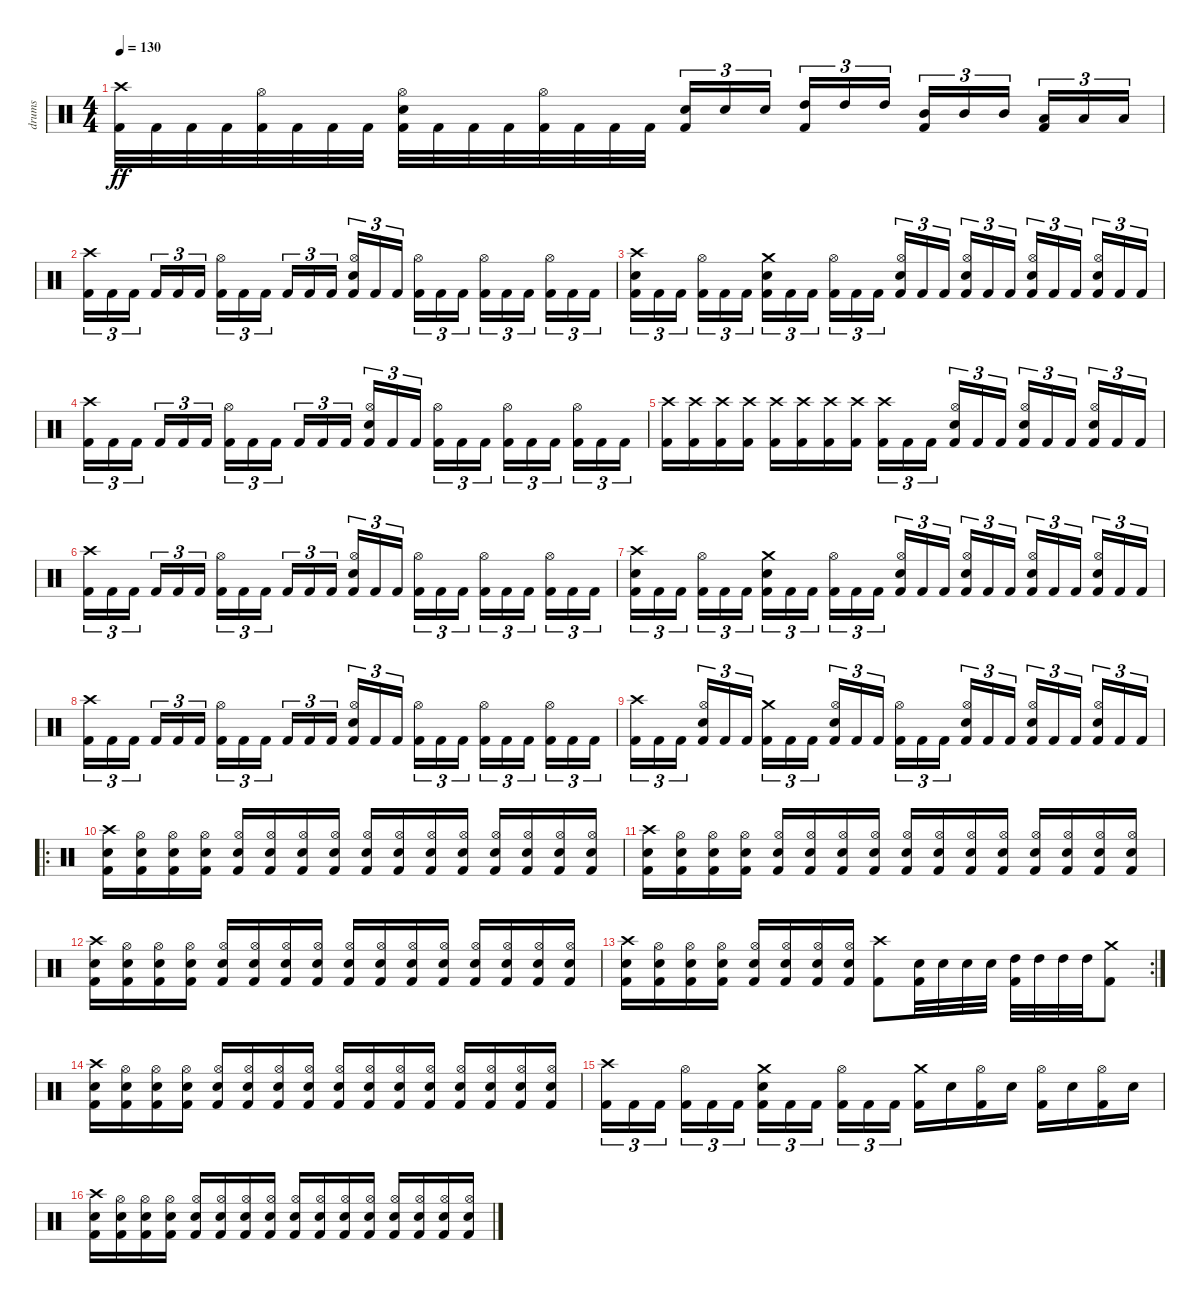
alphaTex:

\track ("drums" "drums") {instrument percussion}
\staff {score}
\articulation defaults
\ts (4 4)
\tempo 130
\clef neutral
\ks c
("Crash high (hit)" "Kick (hit) 2").32{dy ff} "Kick (hit) 2".32 "Kick (hit) 2".32 "Kick (hit) 2".32 ("Hi-Hat (open)" "Kick (hit) 2").32 "Kick (hit) 2".32 "Kick (hit) 2".32 "Kick (hit) 2".32 ("Electric Snare (hit)" "Hi-Hat (open)" "Kick (hit) 2").32 "Kick (hit) 2".32 "Kick (hit) 2".32 "Kick (hit) 2".32 ("Hi-Hat (open)" "Kick (hit) 2").32 "Kick (hit) 2".32 "Kick (hit) 2".32 "Kick (hit) 2".32 ("Kick (hit) 2" "Electric Snare (hit)").16{tu (3 2)} "Electric Snare (hit)".16{tu (3 2)} "Electric Snare (hit)".16{tu (3 2) beam splitsecondary} ("Kick (hit) 2" "High Tom (hit)").16{tu (3 2)} "High Tom (hit)".16{tu (3 2)} "High Tom (hit)".16{tu (3 2)} ("Kick (hit) 2" "Mid Tom (hit)").16{tu (3 2)} "Mid Tom (hit)".16{tu (3 2)} "Mid Tom (hit)".16{tu (3 2) beam splitsecondary} ("Kick (hit) 2" "Low Tom (hit)").16{tu (3 2)} "Low Tom (hit)".16{tu (3 2)} "Low Tom (hit)".16{tu (3 2)} |
("Crash high (hit)" "Kick (hit) 2").16{tu (3 2)} "Kick (hit) 2".16{tu (3 2)} "Kick (hit) 2".16{tu (3 2) beam splitsecondary} "Kick (hit) 2".16{tu (3 2)} "Kick (hit) 2".16{tu (3 2)} "Kick (hit) 2".16{tu (3 2)} ("Hi-Hat (open)" "Kick (hit) 2").16{tu (3 2)} "Kick (hit) 2".16{tu (3 2)} "Kick (hit) 2".16{tu (3 2) beam splitsecondary} "Kick (hit) 2".16{tu (3 2)} "Kick (hit) 2".16{tu (3 2)} "Kick (hit) 2".16{tu (3 2)} ("Electric Snare (hit)" "Hi-Hat (open)" "Kick (hit) 2").16{tu (3 2)} "Kick (hit) 2".16{tu (3 2)} "Kick (hit) 2".16{tu (3 2) beam splitsecondary} ("Hi-Hat (open)" "Kick (hit) 2").16{tu (3 2)} "Kick (hit) 2".16{tu (3 2)} "Kick (hit) 2".16{tu (3 2)} ("Hi-Hat (open)" "Kick (hit) 2").16{tu (3 2)} "Kick (hit) 2".16{tu (3 2)} "Kick (hit) 2".16{tu (3 2) beam splitsecondary} ("Hi-Hat (open)" "Kick (hit) 2").16{tu (3 2)} "Kick (hit) 2".16{tu (3 2)} "Kick (hit) 2".16{tu (3 2)} |
("Electric Snare (hit)" "Crash high (hit)" "Kick (hit) 2").16{tu (3 2)} "Kick (hit) 2".16{tu (3 2)} "Kick (hit) 2".16{tu (3 2) beam splitsecondary} ("Hi-Hat (open)" "Kick (hit) 2").16{tu (3 2)} "Kick (hit) 2".16{tu (3 2)} "Kick (hit) 2".16{tu (3 2)} ("Electric Snare (hit)" "Crash medium (hit)" "Kick (hit) 2").16{tu (3 2)} "Kick (hit) 2".16{tu (3 2)} "Kick (hit) 2".16{tu (3 2) beam splitsecondary} ("Hi-Hat (open)" "Kick (hit) 2").16{tu (3 2)} "Kick (hit) 2".16{tu (3 2)} "Kick (hit) 2".16{tu (3 2)} ("Electric Snare (hit)" "Hi-Hat (open)" "Kick (hit) 2").16{tu (3 2)} "Kick (hit) 2".16{tu (3 2)} "Kick (hit) 2".16{tu (3 2) beam splitsecondary} ("Electric Snare (hit)" "Hi-Hat (open)" "Kick (hit) 2").16{tu (3 2)} "Kick (hit) 2".16{tu (3 2)} "Kick (hit) 2".16{tu (3 2)} ("Electric Snare (hit)" "Hi-Hat (open)" "Kick (hit) 2").16{tu (3 2)} "Kick (hit) 2".16{tu (3 2)} "Kick (hit) 2".16{tu (3 2) beam splitsecondary} ("Electric Snare (hit)" "Hi-Hat (open)" "Kick (hit) 2").16{tu (3 2)} "Kick (hit) 2".16{tu (3 2)} "Kick (hit) 2".16{tu (3 2)} |
("Crash high (hit)" "Kick (hit) 2").16{tu (3 2)} "Kick (hit) 2".16{tu (3 2)} "Kick (hit) 2".16{tu (3 2) beam splitsecondary} "Kick (hit) 2".16{tu (3 2)} "Kick (hit) 2".16{tu (3 2)} "Kick (hit) 2".16{tu (3 2)} ("Hi-Hat (open)" "Kick (hit) 2").16{tu (3 2)} "Kick (hit) 2".16{tu (3 2)} "Kick (hit) 2".16{tu (3 2) beam splitsecondary} "Kick (hit) 2".16{tu (3 2)} "Kick (hit) 2".16{tu (3 2)} "Kick (hit) 2".16{tu (3 2)} ("Electric Snare (hit)" "Hi-Hat (open)" "Kick (hit) 2").16{tu (3 2)} "Kick (hit) 2".16{tu (3 2)} "Kick (hit) 2".16{tu (3 2) beam splitsecondary} ("Hi-Hat (open)" "Kick (hit) 2").16{tu (3 2)} "Kick (hit) 2".16{tu (3 2)} "Kick (hit) 2".16{tu (3 2)} ("Hi-Hat (open)" "Kick (hit) 2").16{tu (3 2)} "Kick (hit) 2".16{tu (3 2)} "Kick (hit) 2".16{tu (3 2) beam splitsecondary} ("Hi-Hat (open)" "Kick (hit) 2").16{tu (3 2)} "Kick (hit) 2".16{tu (3 2)} "Kick (hit) 2".16{tu (3 2)} |
("Crash high (hit)" "Kick (hit) 2").16{volume 13} ("Kick (hit) 2" "Crash high (hit)").16{volume 0} ("Crash high (hit)" "Kick (hit) 2").16{volume 13} ("Kick (hit) 2" "Crash high (hit)").16{volume 0} ("Crash high (hit)" "Kick (hit) 2").16{volume 13} ("Kick (hit) 2" "Crash high (hit)").16{volume 0} ("Crash high (hit)" "Kick (hit) 2").16{volume 13} ("Kick (hit) 2" "Crash high (hit)").16{volume 0} ("Crash high (hit)" "Kick (hit) 2").16{tu (3 2) volume 13} "Kick (hit) 2".16{tu (3 2)} "Kick (hit) 2".16{tu (3 2) beam splitsecondary} ("Electric Snare (hit)" "Hi-Hat (open)" "Kick (hit) 2").16{tu (3 2)} "Kick (hit) 2".16{tu (3 2)} "Kick (hit) 2".16{tu (3 2)} ("Electric Snare (hit)" "Hi-Hat (open)" "Kick (hit) 2").16{tu (3 2)} "Kick (hit) 2".16{tu (3 2)} "Kick (hit) 2".16{tu (3 2) beam splitsecondary} ("Electric Snare (hit)" "Hi-Hat (open)" "Kick (hit) 2").16{tu (3 2)} "Kick (hit) 2".16{tu (3 2)} "Kick (hit) 2".16{tu (3 2)} |
("Crash high (hit)" "Kick (hit) 2").16{tu (3 2)} "Kick (hit) 2".16{tu (3 2)} "Kick (hit) 2".16{tu (3 2) beam splitsecondary} "Kick (hit) 2".16{tu (3 2)} "Kick (hit) 2".16{tu (3 2)} "Kick (hit) 2".16{tu (3 2)} ("Hi-Hat (open)" "Kick (hit) 2").16{tu (3 2)} "Kick (hit) 2".16{tu (3 2)} "Kick (hit) 2".16{tu (3 2) beam splitsecondary} "Kick (hit) 2".16{tu (3 2)} "Kick (hit) 2".16{tu (3 2)} "Kick (hit) 2".16{tu (3 2)} ("Electric Snare (hit)" "Hi-Hat (open)" "Kick (hit) 2").16{tu (3 2)} "Kick (hit) 2".16{tu (3 2)} "Kick (hit) 2".16{tu (3 2) beam splitsecondary} ("Hi-Hat (open)" "Kick (hit) 2").16{tu (3 2)} "Kick (hit) 2".16{tu (3 2)} "Kick (hit) 2".16{tu (3 2)} ("Hi-Hat (open)" "Kick (hit) 2").16{tu (3 2)} "Kick (hit) 2".16{tu (3 2)} "Kick (hit) 2".16{tu (3 2) beam splitsecondary} ("Hi-Hat (open)" "Kick (hit) 2").16{tu (3 2)} "Kick (hit) 2".16{tu (3 2)} "Kick (hit) 2".16{tu (3 2)} |
("Electric Snare (hit)" "Crash high (hit)" "Kick (hit) 2").16{tu (3 2)} "Kick (hit) 2".16{tu (3 2)} "Kick (hit) 2".16{tu (3 2) beam splitsecondary} ("Hi-Hat (open)" "Kick (hit) 2").16{tu (3 2)} "Kick (hit) 2".16{tu (3 2)} "Kick (hit) 2".16{tu (3 2)} ("Electric Snare (hit)" "Crash medium (hit)" "Kick (hit) 2").16{tu (3 2)} "Kick (hit) 2".16{tu (3 2)} "Kick (hit) 2".16{tu (3 2) beam splitsecondary} ("Hi-Hat (open)" "Kick (hit) 2").16{tu (3 2)} "Kick (hit) 2".16{tu (3 2)} "Kick (hit) 2".16{tu (3 2)} ("Electric Snare (hit)" "Hi-Hat (open)" "Kick (hit) 2").16{tu (3 2)} "Kick (hit) 2".16{tu (3 2)} "Kick (hit) 2".16{tu (3 2) beam splitsecondary} ("Electric Snare (hit)" "Hi-Hat (open)" "Kick (hit) 2").16{tu (3 2)} "Kick (hit) 2".16{tu (3 2)} "Kick (hit) 2".16{tu (3 2)} ("Electric Snare (hit)" "Hi-Hat (open)" "Kick (hit) 2").16{tu (3 2)} "Kick (hit) 2".16{tu (3 2)} "Kick (hit) 2".16{tu (3 2) beam splitsecondary} ("Electric Snare (hit)" "Hi-Hat (open)" "Kick (hit) 2").16{tu (3 2)} "Kick (hit) 2".16{tu (3 2)} "Kick (hit) 2".16{tu (3 2)} |
("Crash high (hit)" "Kick (hit) 2").16{tu (3 2)} "Kick (hit) 2".16{tu (3 2)} "Kick (hit) 2".16{tu (3 2) beam splitsecondary} "Kick (hit) 2".16{tu (3 2)} "Kick (hit) 2".16{tu (3 2)} "Kick (hit) 2".16{tu (3 2)} ("Hi-Hat (open)" "Kick (hit) 2").16{tu (3 2)} "Kick (hit) 2".16{tu (3 2)} "Kick (hit) 2".16{tu (3 2) beam splitsecondary} "Kick (hit) 2".16{tu (3 2)} "Kick (hit) 2".16{tu (3 2)} "Kick (hit) 2".16{tu (3 2)} ("Electric Snare (hit)" "Hi-Hat (open)" "Kick (hit) 2").16{tu (3 2)} "Kick (hit) 2".16{tu (3 2)} "Kick (hit) 2".16{tu (3 2) beam splitsecondary} ("Hi-Hat (open)" "Kick (hit) 2").16{tu (3 2)} "Kick (hit) 2".16{tu (3 2)} "Kick (hit) 2".16{tu (3 2)} ("Hi-Hat (open)" "Kick (hit) 2").16{tu (3 2)} "Kick (hit) 2".16{tu (3 2)} "Kick (hit) 2".16{tu (3 2) beam splitsecondary} ("Hi-Hat (open)" "Kick (hit) 2").16{tu (3 2)} "Kick (hit) 2".16{tu (3 2)} "Kick (hit) 2".16{tu (3 2)} |
("Crash high (hit)" "Kick (hit) 2").16{tu (3 2)} "Kick (hit) 2".16{tu (3 2)} "Kick (hit) 2".16{tu (3 2) beam splitsecondary} ("Electric Snare (hit)" "Hi-Hat (open)" "Kick (hit) 2").16{tu (3 2)} "Kick (hit) 2".16{tu (3 2)} "Kick (hit) 2".16{tu (3 2)} ("Crash medium (hit)" "Kick (hit) 2").16{tu (3 2)} "Kick (hit) 2".16{tu (3 2)} "Kick (hit) 2".16{tu (3 2) beam splitsecondary} ("Electric Snare (hit)" "Hi-Hat (open)" "Kick (hit) 2").16{tu (3 2)} "Kick (hit) 2".16{tu (3 2)} "Kick (hit) 2".16{tu (3 2)} ("Hi-Hat (open)" "Kick (hit) 2").16{tu (3 2)} "Kick (hit) 2".16{tu (3 2)} "Kick (hit) 2".16{tu (3 2) beam splitsecondary} ("Electric Snare (hit)" "Hi-Hat (open)" "Kick (hit) 2").16{tu (3 2)} "Kick (hit) 2".16{tu (3 2)} "Kick (hit) 2".16{tu (3 2)} ("Electric Snare (hit)" "Hi-Hat (open)" "Kick (hit) 2").16{tu (3 2)} "Kick (hit) 2".16{tu (3 2)} "Kick (hit) 2".16{tu (3 2) beam splitsecondary} ("Electric Snare (hit)" "Hi-Hat (open)" "Kick (hit) 2").16{tu (3 2)} "Kick (hit) 2".16{tu (3 2)} "Kick (hit) 2".16{tu (3 2)} |
\ro
("Electric Snare (hit)" "Crash high (hit)" "Kick (hit) 2").16 ("Electric Snare (hit)" "Hi-Hat (open)" "Kick (hit) 2").16 ("Electric Snare (hit)" "Hi-Hat (open)" "Kick (hit) 2").16 ("Electric Snare (hit)" "Hi-Hat (open)" "Kick (hit) 2").16 ("Electric Snare (hit)" "Hi-Hat (open)" "Kick (hit) 2").16 ("Electric Snare (hit)" "Hi-Hat (open)" "Kick (hit) 2").16 ("Electric Snare (hit)" "Hi-Hat (open)" "Kick (hit) 2").16 ("Electric Snare (hit)" "Hi-Hat (open)" "Kick (hit) 2").16 ("Electric Snare (hit)" "Hi-Hat (open)" "Kick (hit) 2").16 ("Electric Snare (hit)" "Hi-Hat (open)" "Kick (hit) 2").16 ("Electric Snare (hit)" "Hi-Hat (open)" "Kick (hit) 2").16 ("Electric Snare (hit)" "Hi-Hat (open)" "Kick (hit) 2").16 ("Electric Snare (hit)" "Hi-Hat (open)" "Kick (hit) 2").16 ("Electric Snare (hit)" "Hi-Hat (open)" "Kick (hit) 2").16 ("Electric Snare (hit)" "Hi-Hat (open)" "Kick (hit) 2").16 ("Electric Snare (hit)" "Hi-Hat (open)" "Kick (hit) 2").16 |
("Electric Snare (hit)" "Crash high (hit)" "Kick (hit) 2").16 ("Electric Snare (hit)" "Hi-Hat (open)" "Kick (hit) 2").16 ("Electric Snare (hit)" "Hi-Hat (open)" "Kick (hit) 2").16 ("Electric Snare (hit)" "Hi-Hat (open)" "Kick (hit) 2").16 ("Electric Snare (hit)" "Hi-Hat (open)" "Kick (hit) 2").16 ("Electric Snare (hit)" "Hi-Hat (open)" "Kick (hit) 2").16 ("Electric Snare (hit)" "Hi-Hat (open)" "Kick (hit) 2").16 ("Electric Snare (hit)" "Hi-Hat (open)" "Kick (hit) 2").16 ("Electric Snare (hit)" "Hi-Hat (open)" "Kick (hit) 2").16 ("Electric Snare (hit)" "Hi-Hat (open)" "Kick (hit) 2").16 ("Electric Snare (hit)" "Hi-Hat (open)" "Kick (hit) 2").16 ("Electric Snare (hit)" "Hi-Hat (open)" "Kick (hit) 2").16 ("Electric Snare (hit)" "Hi-Hat (open)" "Kick (hit) 2").16 ("Electric Snare (hit)" "Hi-Hat (open)" "Kick (hit) 2").16 ("Electric Snare (hit)" "Hi-Hat (open)" "Kick (hit) 2").16 ("Electric Snare (hit)" "Hi-Hat (open)" "Kick (hit) 2").16 |
("Electric Snare (hit)" "Crash high (hit)" "Kick (hit) 2").16 ("Electric Snare (hit)" "Hi-Hat (open)" "Kick (hit) 2").16 ("Electric Snare (hit)" "Hi-Hat (open)" "Kick (hit) 2").16 ("Electric Snare (hit)" "Hi-Hat (open)" "Kick (hit) 2").16 ("Electric Snare (hit)" "Hi-Hat (open)" "Kick (hit) 2").16 ("Electric Snare (hit)" "Hi-Hat (open)" "Kick (hit) 2").16 ("Electric Snare (hit)" "Hi-Hat (open)" "Kick (hit) 2").16 ("Electric Snare (hit)" "Hi-Hat (open)" "Kick (hit) 2").16 ("Electric Snare (hit)" "Hi-Hat (open)" "Kick (hit) 2").16 ("Electric Snare (hit)" "Hi-Hat (open)" "Kick (hit) 2").16 ("Electric Snare (hit)" "Hi-Hat (open)" "Kick (hit) 2").16 ("Electric Snare (hit)" "Hi-Hat (open)" "Kick (hit) 2").16 ("Electric Snare (hit)" "Hi-Hat (open)" "Kick (hit) 2").16 ("Electric Snare (hit)" "Hi-Hat (open)" "Kick (hit) 2").16 ("Electric Snare (hit)" "Hi-Hat (open)" "Kick (hit) 2").16 ("Electric Snare (hit)" "Hi-Hat (open)" "Kick (hit) 2").16 |
\rc 2
("Electric Snare (hit)" "Crash high (hit)" "Kick (hit) 2").16 ("Electric Snare (hit)" "Hi-Hat (open)" "Kick (hit) 2").16 ("Electric Snare (hit)" "Hi-Hat (open)" "Kick (hit) 2").16 ("Electric Snare (hit)" "Hi-Hat (open)" "Kick (hit) 2").16 ("Electric Snare (hit)" "Hi-Hat (open)" "Kick (hit) 2").16 ("Electric Snare (hit)" "Hi-Hat (open)" "Kick (hit) 2").16 ("Electric Snare (hit)" "Hi-Hat (open)" "Kick (hit) 2").16 ("Electric Snare (hit)" "Hi-Hat (open)" "Kick (hit) 2").16 ("Crash high (hit)" "Kick (hit) 2").8 ("Kick (hit) 2" "Electric Snare (hit)").32 "Electric Snare (hit)".32 "Electric Snare (hit)".32 "Electric Snare (hit)".32 ("Kick (hit) 2" "High Tom (hit)").32 "High Tom (hit)".32 "High Tom (hit)".32 "High Tom (hit)".32 ("Crash medium (hit)" "Kick (hit) 2").8 |
("Electric Snare (hit)" "Crash high (hit)" "Kick (hit) 2").16 ("Electric Snare (hit)" "Hi-Hat (open)" "Kick (hit) 2").16 ("Electric Snare (hit)" "Hi-Hat (open)" "Kick (hit) 2").16 ("Electric Snare (hit)" "Hi-Hat (open)" "Kick (hit) 2").16 ("Electric Snare (hit)" "Hi-Hat (open)" "Kick (hit) 2").16 ("Electric Snare (hit)" "Hi-Hat (open)" "Kick (hit) 2").16 ("Electric Snare (hit)" "Hi-Hat (open)" "Kick (hit) 2").16 ("Electric Snare (hit)" "Hi-Hat (open)" "Kick (hit) 2").16 ("Electric Snare (hit)" "Hi-Hat (open)" "Kick (hit) 2").16 ("Electric Snare (hit)" "Hi-Hat (open)" "Kick (hit) 2").16 ("Electric Snare (hit)" "Hi-Hat (open)" "Kick (hit) 2").16 ("Electric Snare (hit)" "Hi-Hat (open)" "Kick (hit) 2").16 ("Electric Snare (hit)" "Hi-Hat (open)" "Kick (hit) 2").16 ("Electric Snare (hit)" "Hi-Hat (open)" "Kick (hit) 2").16 ("Electric Snare (hit)" "Hi-Hat (open)" "Kick (hit) 2").16 ("Electric Snare (hit)" "Hi-Hat (open)" "Kick (hit) 2").16 |
("Crash high (hit)" "Kick (hit) 2").16{tu (3 2)} "Kick (hit) 2".16{tu (3 2)} "Kick (hit) 2".16{tu (3 2) beam splitsecondary} ("Hi-Hat (open)" "Kick (hit) 2").16{tu (3 2)} "Kick (hit) 2".16{tu (3 2)} "Kick (hit) 2".16{tu (3 2)} ("Electric Snare (hit)" "Crash medium (hit)" "Kick (hit) 2").16{tu (3 2)} "Kick (hit) 2".16{tu (3 2)} "Kick (hit) 2".16{tu (3 2) beam splitsecondary} ("Hi-Hat (open)" "Kick (hit) 2").16{tu (3 2)} "Kick (hit) 2".16{tu (3 2)} "Kick (hit) 2".16{tu (3 2)} ("Crash medium (hit)" "Kick (hit) 2").16 "Electric Snare (hit)".16 ("Hi-Hat (open)" "Kick (hit) 2").16 "Electric Snare (hit)".16 ("Hi-Hat (open)" "Kick (hit) 2").16 "Electric Snare (hit)".16 ("Hi-Hat (open)" "Kick (hit) 2").16 "Electric Snare (hit)".16 |
("Electric Snare (hit)" "Crash high (hit)" "Kick (hit) 2").16 ("Electric Snare (hit)" "Hi-Hat (open)" "Kick (hit) 2").16 ("Electric Snare (hit)" "Hi-Hat (open)" "Kick (hit) 2").16 ("Electric Snare (hit)" "Hi-Hat (open)" "Kick (hit) 2").16 ("Electric Snare (hit)" "Hi-Hat (open)" "Kick (hit) 2").16 ("Electric Snare (hit)" "Hi-Hat (open)" "Kick (hit) 2").16 ("Electric Snare (hit)" "Hi-Hat (open)" "Kick (hit) 2").16 ("Electric Snare (hit)" "Hi-Hat (open)" "Kick (hit) 2").16 ("Electric Snare (hit)" "Hi-Hat (open)" "Kick (hit) 2").16 ("Electric Snare (hit)" "Hi-Hat (open)" "Kick (hit) 2").16 ("Electric Snare (hit)" "Hi-Hat (open)" "Kick (hit) 2").16 ("Electric Snare (hit)" "Hi-Hat (open)" "Kick (hit) 2").16 ("Electric Snare (hit)" "Hi-Hat (open)" "Kick (hit) 2").16 ("Electric Snare (hit)" "Hi-Hat (open)" "Kick (hit) 2").16 ("Electric Snare (hit)" "Hi-Hat (open)" "Kick (hit) 2").16 ("Electric Snare (hit)" "Hi-Hat (open)" "Kick (hit) 2").16
